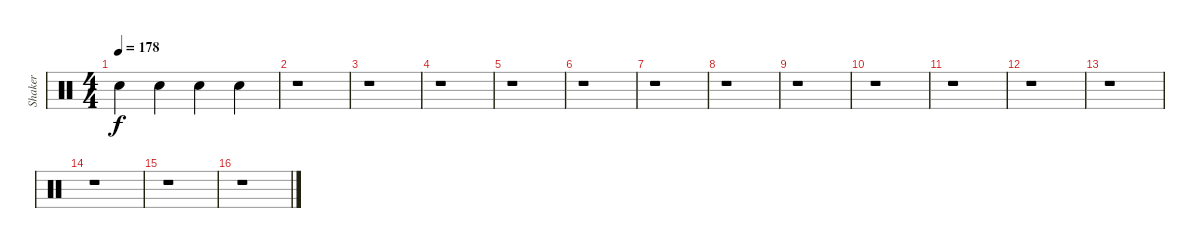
\track ("Shaker" "Shaker") {instrument percussion}
\staff {score}
\articulation defaults
\ts (4 4)
\tempo 178
\clef neutral
\ks c "Snare (hit)".4{dy f} "Snare (hit)".4 "Snare (hit)".4 "Snare (hit)".4
|
r.1 |
\section ("" "")
r.1 |
r.1 |
r.1 |
r.1 |
r.1 |
r.1 |
r.1 |
r.1 |
\section ("" "")
r.1 |
r.1 |
r.1 |
r.1 |
r.1 |
r.1
